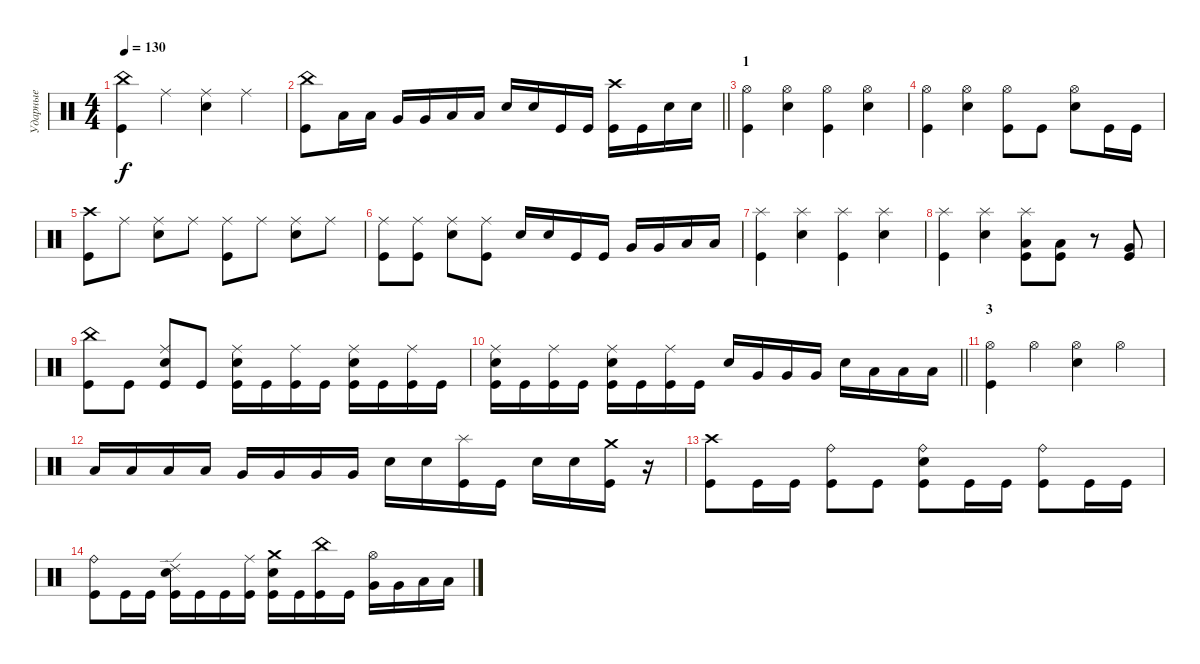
\track ("Ударные" "Ударные") {instrument percussion}
\staff {score}
\articulation defaults
\ts (4 4)
\tempo 130
\clef neutral
\ks c
("China (hit)" "Kick (hit)").4{dy f} "Ride (middle)".4 ("Ride (middle)" "Electric Snare (hit)").4 "Ride (middle)".4 |
\barLineRight lightlight
("China (hit)" "Kick (hit)").8 "Low Tom (hit)".16 "Low Tom (hit)".16 "Very Low Tom (hit)".16 "Very Low Tom (hit)".16 "Low Floor Tom (hit)".16 "Low Floor Tom (hit)".16 "Electric Snare (hit)".16 "Electric Snare (hit)".16 "Kick (hit)".16 "Kick (hit)".16 ("Crash high (hit)" "Kick (hit)").16 "Kick (hit)".16 "Electric Snare (hit)".16 "Electric Snare (hit)".16 |
\section ("" "1")
("Hi-Hat (open)" "Kick (hit)").4 ("Hi-Hat (open)" "Electric Snare (hit)").4 ("Hi-Hat (open)" "Kick (hit)").4 ("Hi-Hat (open)" "Electric Snare (hit)").4 |
("Hi-Hat (open)" "Kick (hit)").4 ("Hi-Hat (open)" "Electric Snare (hit)").4 ("Hi-Hat (open)" "Kick (hit)").8 "Kick (hit)".8 ("Hi-Hat (open)" "Electric Snare (hit)").8 "Kick (hit)".16 "Kick (hit)".16 |
("Crash high (hit)" "Kick (hit)").8 "Ride (middle)".8 ("Ride (middle)" "Electric Snare (hit)").8 "Ride (middle)".8 ("Ride (middle)" "Kick (hit)").8 "Ride (middle)".8 ("Ride (middle)" "Electric Snare (hit)").8 "Ride (middle)".8 |
("Ride (middle)" "Kick (hit)").8 ("Ride (middle)" "Kick (hit)").8 ("Ride (middle)" "Electric Snare (hit)").8 ("Ride (middle)" "Kick (hit)").8 "Electric Snare (hit)".16 "Electric Snare (hit)".16 "Kick (hit)".16 "Kick (hit)".16 "Very Low Tom (hit)".16 "Very Low Tom (hit)".16 "Low Floor Tom (hit)".16 "Low Floor Tom (hit)".16 |
("Splash (hit)" "Kick (hit)").4 ("Splash (hit)" "Electric Snare (hit)").4 ("Splash (hit)" "Kick (hit)").4 ("Splash (hit)" "Electric Snare (hit)").4 |
("Splash (hit)" "Kick (hit)").4 ("Splash (hit)" "Electric Snare (hit)").4 ("Splash (hit)" "Low Tom (hit)" "Kick (hit)").8 ("Low Tom (hit)" "Kick (hit)").8 r.8 ("Very Low Tom (hit)" "Kick (hit)").8 |
("China (hit)" "Kick (hit)").8 "Kick (hit)".8 ("Ride (middle)" "Electric Snare (hit)" "Kick (hit)").8 "Kick (hit)".8 ("Ride (middle)" "Electric Snare (hit)" "Kick (hit)").16 "Kick (hit)".16 ("Ride (middle)" "Kick (hit)").16 "Kick (hit)".16 ("Ride (middle)" "Electric Snare (hit)" "Kick (hit)").16 "Kick (hit)".16 ("Ride (middle)" "Kick (hit)").16 "Kick (hit)".16 |
\barLineRight lightlight
("Ride (middle)" "Electric Snare (hit)" "Kick (hit)").16 "Kick (hit)".16 ("Ride (middle)" "Kick (hit)").16 "Kick (hit)".16 ("Ride (middle)" "Electric Snare (hit)" "Kick (hit)").16 "Kick (hit)".16 ("Ride (middle)" "Kick (hit)").16 "Kick (hit)".16 "Electric Snare (hit)".16 "Very Low Tom (hit)".16 "Very Low Tom (hit)".16 "Very Low Tom (hit)".16 "Electric Snare (hit)".16 "Low Floor Tom (hit)".16 "Low Floor Tom (hit)".16 "Low Floor Tom (hit)".16 |
\section ("" "3")
("Hi-Hat (open)" "Kick (hit)").4 "Hi-Hat (open)".4 ("Hi-Hat (open)" "Electric Snare (hit)").4 "Hi-Hat (open)".4 |
"Low Tom (hit)".16 "Low Tom (hit)".16 "Low Tom (hit)".16 "Low Tom (hit)".16 "Very Low Tom (hit)".16 "Very Low Tom (hit)".16 "Very Low Tom (hit)".16 "Very Low Tom (hit)".16 "Electric Snare (hit)".16 "Electric Snare (hit)".16 ("Splash (hit)" "Kick (hit)").16 "Kick (hit)".16 "Electric Snare (hit)".16 "Electric Snare (hit)".16 ("Crash medium (hit)" "Kick (hit)").16 r.16 |
("Crash high (hit)" "Kick (hit)").8 "Kick (hit)".16 "Kick (hit)".16 ("Ride (bell)" "Kick (hit)").8 "Kick (hit)".8 ("Ride (bell)" "Electric Snare (hit)" "Kick (hit)").8 "Kick (hit)".16 "Kick (hit)".16 ("Ride (bell)" "Kick (hit)").8 "Kick (hit)".16 "Kick (hit)".16 |
("Ride (bell)" "Kick (hit)").8 "Kick (hit)".16 "Kick (hit)".16 ("Ride (edge) 2" "Electric Snare (hit)" "Kick (hit)").16 "Kick (hit)".16 "Kick (hit)".16 ("Ride (middle)" "Kick (hit)").16 ("Crash medium (hit)" "Electric Snare (hit)" "Kick (hit)").16 "Kick (hit)".16 ("China (hit)" "Kick (hit)").16 "Kick (hit)".16 ("Hi-Hat (open)" "Very Low Tom (hit)").16 "Very Low Tom (hit)".16 "Low Floor Tom (hit)".16 "Low Floor Tom (hit)".16
